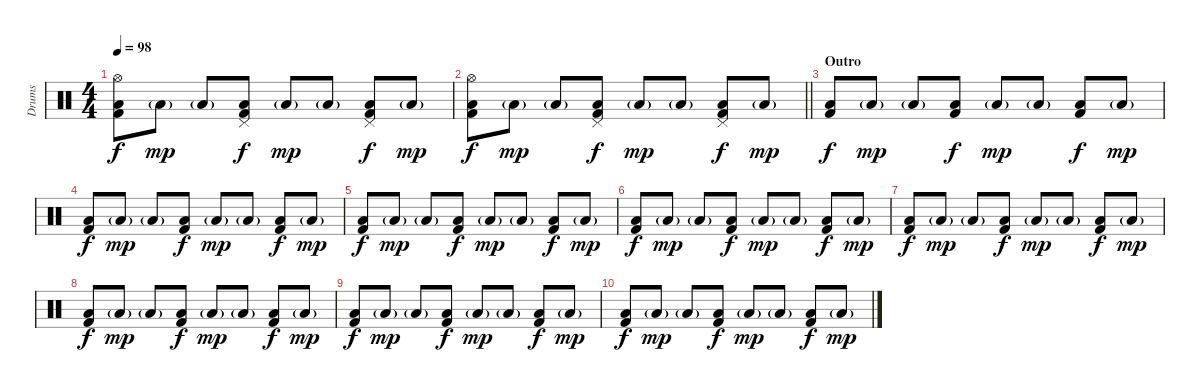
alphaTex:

\track ("Drums" "Drums") {instrument percussion}
\staff {score}
\articulation defaults
\ts (4 4)
\tempo 98
\clef neutral
\ks c
("Hi-Hat (open)" "Kick (hit) 2" "Low Tom (hit)").8{dy f} "Low Tom (hit)"{g}.8{dy mp} "Low Tom (hit)"{g}.8 ("Pedal Hi-Hat (hit)" "Kick (hit) 2" "Low Tom (hit)").8{dy f} "Low Tom (hit)"{g}.8{dy mp} "Low Tom (hit)"{g}.8 ("Pedal Hi-Hat (hit)" "Kick (hit) 2" "Low Tom (hit)").8{dy f} "Low Tom (hit)"{g}.8{dy mp} |
\barLineRight lightlight
("Hi-Hat (open)" "Kick (hit) 2" "Low Tom (hit)").8{dy f} "Low Tom (hit)"{g}.8{dy mp} "Low Tom (hit)"{g}.8 ("Pedal Hi-Hat (hit)" "Kick (hit) 2" "Low Tom (hit)").8{dy f} "Low Tom (hit)"{g}.8{dy mp} "Low Tom (hit)"{g}.8 ("Pedal Hi-Hat (hit)" "Kick (hit) 2" "Low Tom (hit)").8{dy f} "Low Tom (hit)"{g}.8{dy mp} |
\section ("" "Outro")
("Kick (hit) 2" "Low Tom (hit)").8{dy f} "Low Tom (hit)"{g}.8{dy mp} "Low Tom (hit)"{g}.8 ("Kick (hit) 2" "Low Tom (hit)").8{dy f} "Low Tom (hit)"{g}.8{dy mp} "Low Tom (hit)"{g}.8 ("Kick (hit) 2" "Low Tom (hit)").8{dy f} "Low Tom (hit)"{g}.8{dy mp} |
("Kick (hit) 2" "Low Tom (hit)").8{dy f} "Low Tom (hit)"{g}.8{dy mp} "Low Tom (hit)"{g}.8 ("Kick (hit) 2" "Low Tom (hit)").8{dy f} "Low Tom (hit)"{g}.8{dy mp} "Low Tom (hit)"{g}.8 ("Kick (hit) 2" "Low Tom (hit)").8{dy f} "Low Tom (hit)"{g}.8{dy mp} |
("Kick (hit) 2" "Low Tom (hit)").8{dy f} "Low Tom (hit)"{g}.8{dy mp} "Low Tom (hit)"{g}.8 ("Kick (hit) 2" "Low Tom (hit)").8{dy f} "Low Tom (hit)"{g}.8{dy mp} "Low Tom (hit)"{g}.8 ("Kick (hit) 2" "Low Tom (hit)").8{dy f} "Low Tom (hit)"{g}.8{dy mp} |
("Kick (hit) 2" "Low Tom (hit)").8{dy f} "Low Tom (hit)"{g}.8{dy mp} "Low Tom (hit)"{g}.8 ("Kick (hit) 2" "Low Tom (hit)").8{dy f} "Low Tom (hit)"{g}.8{dy mp} "Low Tom (hit)"{g}.8 ("Kick (hit) 2" "Low Tom (hit)").8{dy f} "Low Tom (hit)"{g}.8{dy mp} |
("Kick (hit) 2" "Low Tom (hit)").8{dy f} "Low Tom (hit)"{g}.8{dy mp} "Low Tom (hit)"{g}.8 ("Kick (hit) 2" "Low Tom (hit)").8{dy f} "Low Tom (hit)"{g}.8{dy mp} "Low Tom (hit)"{g}.8 ("Kick (hit) 2" "Low Tom (hit)").8{dy f} "Low Tom (hit)"{g}.8{dy mp} |
("Kick (hit) 2" "Low Tom (hit)").8{dy f} "Low Tom (hit)"{g}.8{dy mp} "Low Tom (hit)"{g}.8 ("Kick (hit) 2" "Low Tom (hit)").8{dy f} "Low Tom (hit)"{g}.8{dy mp} "Low Tom (hit)"{g}.8 ("Kick (hit) 2" "Low Tom (hit)").8{dy f} "Low Tom (hit)"{g}.8{dy mp} |
("Kick (hit) 2" "Low Tom (hit)").8{dy f} "Low Tom (hit)"{g}.8{dy mp} "Low Tom (hit)"{g}.8 ("Kick (hit) 2" "Low Tom (hit)").8{dy f} "Low Tom (hit)"{g}.8{dy mp} "Low Tom (hit)"{g}.8 ("Kick (hit) 2" "Low Tom (hit)").8{dy f} "Low Tom (hit)"{g}.8{dy mp} |
("Kick (hit) 2" "Low Tom (hit)").8{dy f} "Low Tom (hit)"{g}.8{dy mp} "Low Tom (hit)"{g}.8 ("Kick (hit) 2" "Low Tom (hit)").8{dy f} "Low Tom (hit)"{g}.8{dy mp} "Low Tom (hit)"{g}.8 ("Kick (hit) 2" "Low Tom (hit)").8{dy f} "Low Tom (hit)"{g}.8{dy mp}
